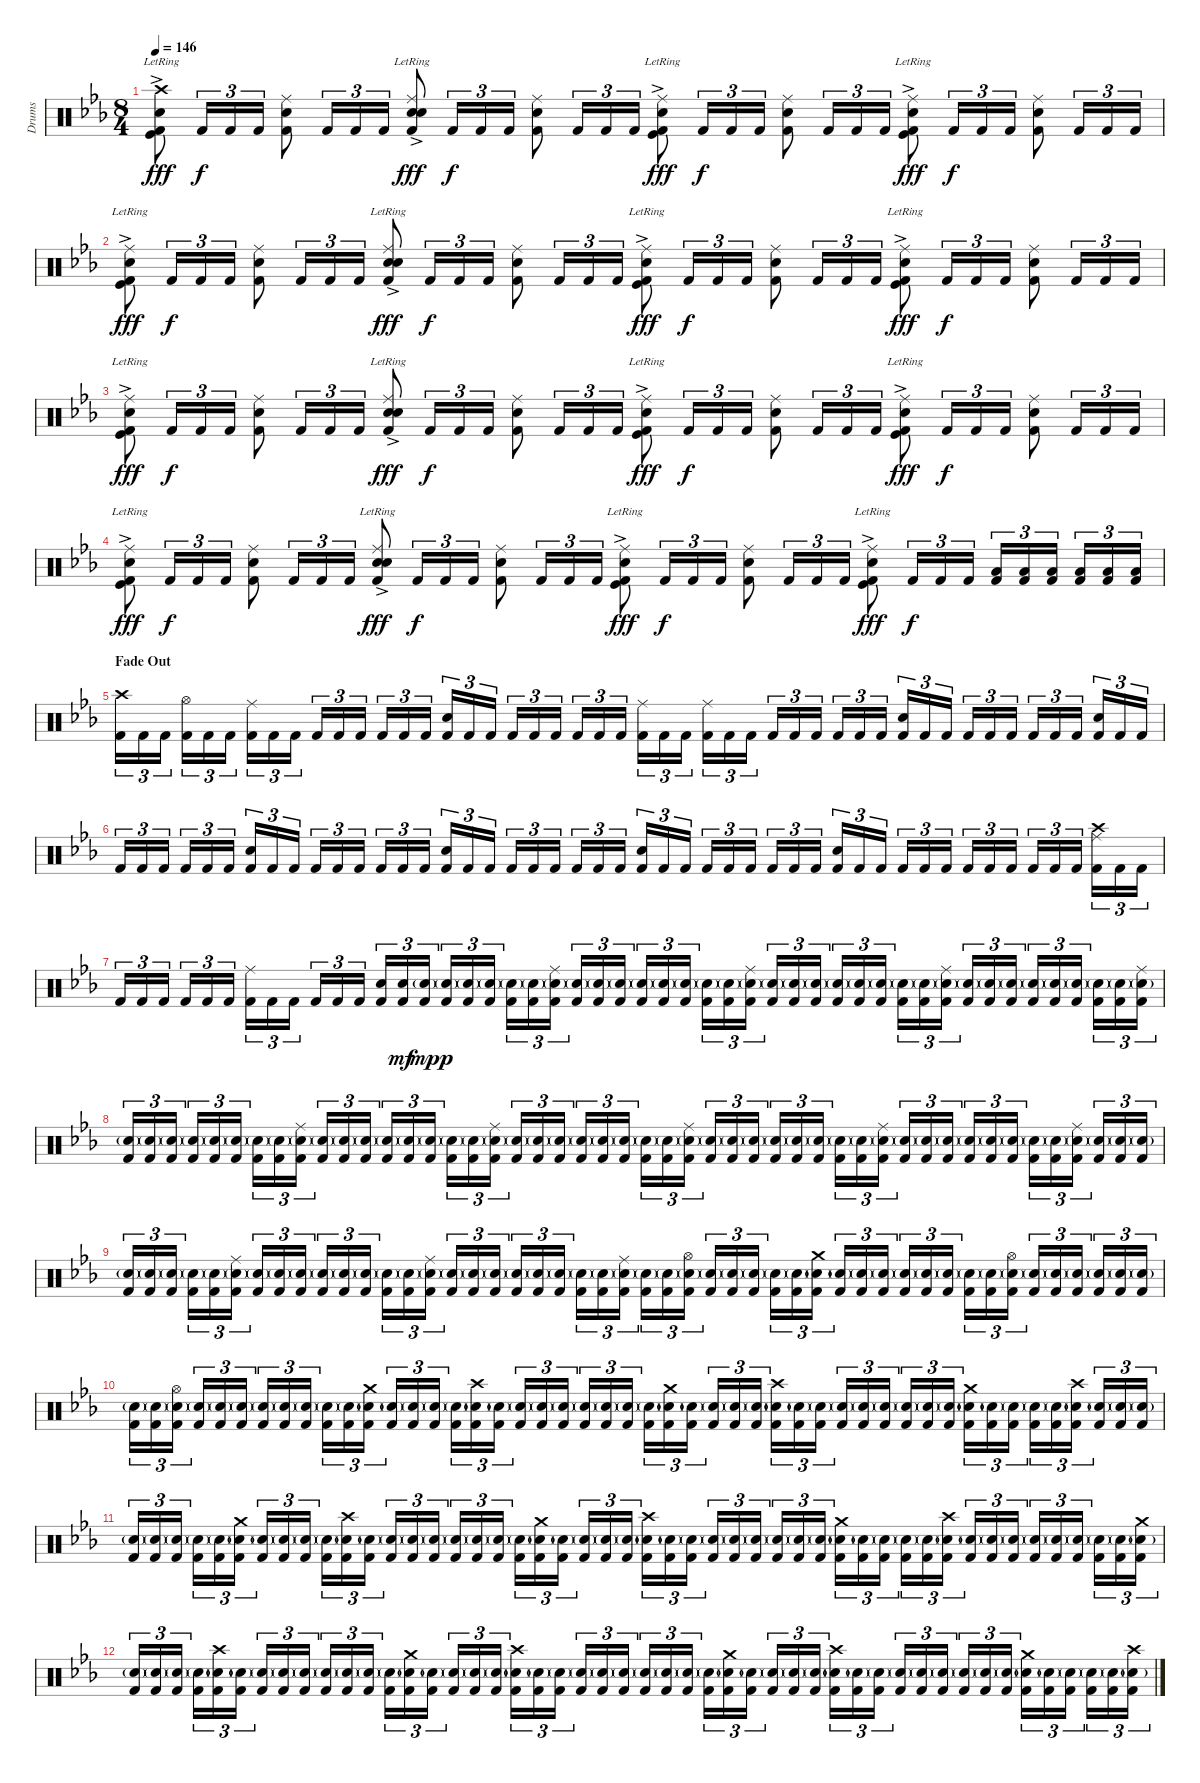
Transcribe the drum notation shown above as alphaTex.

\track ("Drums" "Drums") {instrument percussion}
\staff {score}
\articulation defaults
\ts (8 4)
\tempo 146
\clef neutral
\ks eb
("Crash high (hit)" "Kick (hit)"{ac lr} "Kick (hit) 2"{ac lr} "Electric Snare (hit)").8{dy fff} "Kick (hit) 2".16{tu (3 2) dy f} "Kick (hit) 2".16{tu (3 2)} "Kick (hit) 2".16{tu (3 2)} ("Ride (middle)" "Kick (hit) 2" "Electric Snare (hit)").8 "Kick (hit) 2".16{tu (3 2)} "Kick (hit) 2".16{tu (3 2)} "Kick (hit) 2".16{tu (3 2)} ("Ride (middle)" "Snare (hit) 2"{ac lr} "Kick (hit) 2" "Electric Snare (hit)"{ac lr}).8{dy fff} "Kick (hit) 2".16{tu (3 2) dy f} "Kick (hit) 2".16{tu (3 2)} "Kick (hit) 2".16{tu (3 2)} ("Ride (middle)" "Kick (hit) 2" "Electric Snare (hit)").8 "Kick (hit) 2".16{tu (3 2)} "Kick (hit) 2".16{tu (3 2)} "Kick (hit) 2".16{tu (3 2)} ("Ride (middle)" "Kick (hit)"{ac lr} "Kick (hit) 2"{ac lr} "Electric Snare (hit)").8{dy fff} "Kick (hit) 2".16{tu (3 2) dy f} "Kick (hit) 2".16{tu (3 2)} "Kick (hit) 2".16{tu (3 2)} ("Ride (middle)" "Kick (hit) 2" "Electric Snare (hit)").8 "Kick (hit) 2".16{tu (3 2)} "Kick (hit) 2".16{tu (3 2)} "Kick (hit) 2".16{tu (3 2)} ("Ride (middle)" "Kick (hit)"{ac lr} "Kick (hit) 2"{ac lr} "Electric Snare (hit)").8{dy fff} "Kick (hit) 2".16{tu (3 2) dy f} "Kick (hit) 2".16{tu (3 2)} "Kick (hit) 2".16{tu (3 2)} ("Ride (middle)" "Kick (hit) 2" "Electric Snare (hit)").8 "Kick (hit) 2".16{tu (3 2)} "Kick (hit) 2".16{tu (3 2)} "Kick (hit) 2".16{tu (3 2)} |
("Ride (middle)" "Kick (hit)"{ac lr} "Kick (hit) 2"{ac lr} "Electric Snare (hit)").8{dy fff} "Kick (hit) 2".16{tu (3 2) dy f} "Kick (hit) 2".16{tu (3 2)} "Kick (hit) 2".16{tu (3 2)} ("Ride (middle)" "Kick (hit) 2" "Electric Snare (hit)").8 "Kick (hit) 2".16{tu (3 2)} "Kick (hit) 2".16{tu (3 2)} "Kick (hit) 2".16{tu (3 2)} ("Ride (middle)" "Snare (hit) 2"{ac lr} "Kick (hit) 2" "Electric Snare (hit)"{ac lr}).8{dy fff} "Kick (hit) 2".16{tu (3 2) dy f} "Kick (hit) 2".16{tu (3 2)} "Kick (hit) 2".16{tu (3 2)} ("Ride (middle)" "Kick (hit) 2" "Electric Snare (hit)").8 "Kick (hit) 2".16{tu (3 2)} "Kick (hit) 2".16{tu (3 2)} "Kick (hit) 2".16{tu (3 2)} ("Ride (middle)" "Kick (hit)"{ac lr} "Kick (hit) 2"{ac lr} "Electric Snare (hit)").8{dy fff} "Kick (hit) 2".16{tu (3 2) dy f} "Kick (hit) 2".16{tu (3 2)} "Kick (hit) 2".16{tu (3 2)} ("Ride (middle)" "Kick (hit) 2" "Electric Snare (hit)").8 "Kick (hit) 2".16{tu (3 2)} "Kick (hit) 2".16{tu (3 2)} "Kick (hit) 2".16{tu (3 2)} ("Ride (middle)" "Kick (hit)"{ac lr} "Kick (hit) 2"{ac} "Electric Snare (hit)").8{dy fff} "Kick (hit) 2".16{tu (3 2) dy f} "Kick (hit) 2".16{tu (3 2)} "Kick (hit) 2".16{tu (3 2)} ("Ride (middle)" "Kick (hit) 2" "Electric Snare (hit)").8 "Kick (hit) 2".16{tu (3 2)} "Kick (hit) 2".16{tu (3 2)} "Kick (hit) 2".16{tu (3 2)} |
("Ride (middle)" "Kick (hit)"{ac lr} "Kick (hit) 2"{ac lr} "Electric Snare (hit)").8{dy fff} "Kick (hit) 2".16{tu (3 2) dy f} "Kick (hit) 2".16{tu (3 2)} "Kick (hit) 2".16{tu (3 2)} ("Ride (middle)" "Kick (hit) 2" "Electric Snare (hit)").8 "Kick (hit) 2".16{tu (3 2)} "Kick (hit) 2".16{tu (3 2)} "Kick (hit) 2".16{tu (3 2)} ("Ride (middle)" "Snare (hit) 2"{ac lr} "Kick (hit) 2" "Electric Snare (hit)"{ac lr}).8{dy fff} "Kick (hit) 2".16{tu (3 2) dy f} "Kick (hit) 2".16{tu (3 2)} "Kick (hit) 2".16{tu (3 2)} ("Ride (middle)" "Kick (hit) 2" "Electric Snare (hit)").8 "Kick (hit) 2".16{tu (3 2)} "Kick (hit) 2".16{tu (3 2)} "Kick (hit) 2".16{tu (3 2)} ("Ride (middle)" "Kick (hit)"{ac lr} "Kick (hit) 2"{ac lr} "Electric Snare (hit)").8{dy fff} "Kick (hit) 2".16{tu (3 2) dy f} "Kick (hit) 2".16{tu (3 2)} "Kick (hit) 2".16{tu (3 2)} ("Ride (middle)" "Kick (hit) 2" "Electric Snare (hit)").8 "Kick (hit) 2".16{tu (3 2)} "Kick (hit) 2".16{tu (3 2)} "Kick (hit) 2".16{tu (3 2)} ("Ride (middle)" "Kick (hit)"{ac lr} "Kick (hit) 2"{ac} "Electric Snare (hit)").8{dy fff} "Kick (hit) 2".16{tu (3 2) dy f} "Kick (hit) 2".16{tu (3 2)} "Kick (hit) 2".16{tu (3 2)} ("Ride (middle)" "Kick (hit) 2" "Electric Snare (hit)").8 "Kick (hit) 2".16{tu (3 2)} "Kick (hit) 2".16{tu (3 2)} "Kick (hit) 2".16{tu (3 2)} |
("Ride (middle)" "Kick (hit)"{ac lr} "Kick (hit) 2"{ac lr} "Electric Snare (hit)").8{dy fff} "Kick (hit) 2".16{tu (3 2) dy f} "Kick (hit) 2".16{tu (3 2)} "Kick (hit) 2".16{tu (3 2)} ("Ride (middle)" "Kick (hit) 2" "Electric Snare (hit)").8 "Kick (hit) 2".16{tu (3 2)} "Kick (hit) 2".16{tu (3 2)} "Kick (hit) 2".16{tu (3 2)} ("Ride (middle)" "Snare (hit) 2"{ac lr} "Kick (hit) 2" "Electric Snare (hit)"{ac lr}).8{dy fff} "Kick (hit) 2".16{tu (3 2) dy f} "Kick (hit) 2".16{tu (3 2)} "Kick (hit) 2".16{tu (3 2)} ("Ride (middle)" "Kick (hit) 2" "Electric Snare (hit)").8 "Kick (hit) 2".16{tu (3 2)} "Kick (hit) 2".16{tu (3 2)} "Kick (hit) 2".16{tu (3 2)} ("Ride (middle)" "Kick (hit)"{ac lr} "Kick (hit) 2"{ac lr} "Electric Snare (hit)").8{dy fff} "Kick (hit) 2".16{tu (3 2) dy f} "Kick (hit) 2".16{tu (3 2)} "Kick (hit) 2".16{tu (3 2)} ("Ride (middle)" "Kick (hit) 2" "Electric Snare (hit)").8 "Kick (hit) 2".16{tu (3 2)} "Kick (hit) 2".16{tu (3 2)} "Kick (hit) 2".16{tu (3 2)} ("Ride (middle)" "Kick (hit)"{ac lr} "Kick (hit) 2"{ac lr} "Electric Snare (hit)").8{dy fff} "Kick (hit) 2".16{tu (3 2) dy f} "Kick (hit) 2".16{tu (3 2)} "Kick (hit) 2".16{tu (3 2)} ("Low Tom (hit)" "Kick (hit) 2").16{tu (3 2)} ("Low Tom (hit)" "Kick (hit) 2").16{tu (3 2)} ("Low Tom (hit)" "Kick (hit) 2").16{tu (3 2)} ("Low Tom (hit)" "Kick (hit) 2").16{tu (3 2)} ("Low Tom (hit)" "Kick (hit) 2").16{tu (3 2)} ("Low Tom (hit)" "Kick (hit) 2").16{tu (3 2)} |
\section ("" "Fade Out")
("Crash high (hit)" "Kick (hit) 2").16{tu (3 2)} "Kick (hit) 2".16{tu (3 2)} "Kick (hit) 2".16{tu (3 2)} ("Hi-Hat (open)" "Kick (hit) 2").16{tu (3 2)} "Kick (hit) 2".16{tu (3 2)} "Kick (hit) 2".16{tu (3 2)} ("Ride (middle)" "Kick (hit) 2").16{tu (3 2)} "Kick (hit) 2".16{tu (3 2)} "Kick (hit) 2".16{tu (3 2)} "Kick (hit) 2".16{tu (3 2)} "Kick (hit) 2".16{tu (3 2)} "Kick (hit) 2".16{tu (3 2)} "Kick (hit) 2".16{tu (3 2)} "Kick (hit) 2".16{tu (3 2)} "Kick (hit) 2".16{tu (3 2)} ("Electric Snare (hit)" "Kick (hit) 2").16{tu (3 2)} "Kick (hit) 2".16{tu (3 2)} "Kick (hit) 2".16{tu (3 2)} "Kick (hit) 2".16{tu (3 2)} "Kick (hit) 2".16{tu (3 2)} "Kick (hit) 2".16{tu (3 2)} "Kick (hit) 2".16{tu (3 2)} "Kick (hit) 2".16{tu (3 2)} "Kick (hit) 2".16{tu (3 2)} ("Ride (middle)" "Kick (hit) 2").16{tu (3 2)} "Kick (hit) 2".16{tu (3 2)} "Kick (hit) 2".16{tu (3 2)} ("Ride (middle)" "Kick (hit) 2").16{tu (3 2)} "Kick (hit) 2".16{tu (3 2)} "Kick (hit) 2".16{tu (3 2)} "Kick (hit) 2".16{tu (3 2)} "Kick (hit) 2".16{tu (3 2)} "Kick (hit) 2".16{tu (3 2)} "Kick (hit) 2".16{tu (3 2)} "Kick (hit) 2".16{tu (3 2)} "Kick (hit) 2".16{tu (3 2)} ("Electric Snare (hit)" "Kick (hit) 2").16{tu (3 2)} "Kick (hit) 2".16{tu (3 2)} "Kick (hit) 2".16{tu (3 2)} "Kick (hit) 2".16{tu (3 2)} "Kick (hit) 2".16{tu (3 2)} "Kick (hit) 2".16{tu (3 2)} "Kick (hit) 2".16{tu (3 2)} "Kick (hit) 2".16{tu (3 2)} "Kick (hit) 2".16{tu (3 2)} ("Electric Snare (hit)" "Kick (hit) 2").16{tu (3 2)} "Kick (hit) 2".16{tu (3 2)} "Kick (hit) 2".16{tu (3 2)} |
"Kick (hit) 2".16{tu (3 2)} "Kick (hit) 2".16{tu (3 2)} "Kick (hit) 2".16{tu (3 2)} "Kick (hit) 2".16{tu (3 2)} "Kick (hit) 2".16{tu (3 2)} "Kick (hit) 2".16{tu (3 2)} ("Electric Snare (hit)" "Kick (hit) 2").16{tu (3 2)} "Kick (hit) 2".16{tu (3 2)} "Kick (hit) 2".16{tu (3 2)} "Kick (hit) 2".16{tu (3 2)} "Kick (hit) 2".16{tu (3 2)} "Kick (hit) 2".16{tu (3 2)} "Kick (hit) 2".16{tu (3 2)} "Kick (hit) 2".16{tu (3 2)} "Kick (hit) 2".16{tu (3 2)} ("Electric Snare (hit)" "Kick (hit) 2").16{tu (3 2)} "Kick (hit) 2".16{tu (3 2)} "Kick (hit) 2".16{tu (3 2)} "Kick (hit) 2".16{tu (3 2)} "Kick (hit) 2".16{tu (3 2)} "Kick (hit) 2".16{tu (3 2)} "Kick (hit) 2".16{tu (3 2)} "Kick (hit) 2".16{tu (3 2)} "Kick (hit) 2".16{tu (3 2)} ("Electric Snare (hit)" "Kick (hit) 2").16{tu (3 2)} "Kick (hit) 2".16{tu (3 2)} "Kick (hit) 2".16{tu (3 2)} "Kick (hit) 2".16{tu (3 2)} "Kick (hit) 2".16{tu (3 2)} "Kick (hit) 2".16{tu (3 2)} "Kick (hit) 2".16{tu (3 2)} "Kick (hit) 2".16{tu (3 2)} "Kick (hit) 2".16{tu (3 2)} ("Electric Snare (hit)" "Kick (hit) 2").16{tu (3 2)} "Kick (hit) 2".16{tu (3 2)} "Kick (hit) 2".16{tu (3 2)} "Kick (hit) 2".16{tu (3 2)} "Kick (hit) 2".16{tu (3 2)} "Kick (hit) 2".16{tu (3 2)} "Kick (hit) 2".16{tu (3 2)} "Kick (hit) 2".16{tu (3 2)} "Kick (hit) 2".16{tu (3 2)} "Kick (hit) 2".16{tu (3 2)} "Kick (hit) 2".16{tu (3 2)} "Kick (hit) 2".16{tu (3 2)} ("Crash high (hit)" "Ride (middle)" "Kick (hit) 2").16{tu (3 2)} "Kick (hit) 2".16{tu (3 2)} "Kick (hit) 2".16{tu (3 2)} |
"Kick (hit) 2".16{tu (3 2)} "Kick (hit) 2".16{tu (3 2)} "Kick (hit) 2".16{tu (3 2)} "Kick (hit) 2".16{tu (3 2)} "Kick (hit) 2".16{tu (3 2)} "Kick (hit) 2".16{tu (3 2)} ("Ride (middle)" "Kick (hit) 2").16{tu (3 2)} "Kick (hit) 2".16{tu (3 2)} "Kick (hit) 2".16{tu (3 2)} "Kick (hit) 2".16{tu (3 2)} "Kick (hit) 2".16{tu (3 2)} "Kick (hit) 2".16{tu (3 2)} ("Electric Snare (hit)" "Kick (hit) 2").16{tu (3 2)} ("Electric Snare (hit)" "Kick (hit) 2").16{tu (3 2) dy mf} ("Electric Snare (hit)"{g} "Kick (hit) 2").16{tu (3 2) dy mp} ("Electric Snare (hit)"{g} "Kick (hit) 2").16{tu (3 2) dy p} ("Electric Snare (hit)"{g} "Kick (hit) 2").16{tu (3 2)} ("Electric Snare (hit)"{g} "Kick (hit) 2").16{tu (3 2)} ("Electric Snare (hit)"{g} "Kick (hit) 2").16{tu (3 2)} ("Electric Snare (hit)"{g} "Kick (hit) 2").16{tu (3 2)} ("Ride (middle)" "Electric Snare (hit)"{g} "Kick (hit) 2").16{tu (3 2)} ("Electric Snare (hit)"{g} "Kick (hit) 2").16{tu (3 2)} ("Electric Snare (hit)"{g} "Kick (hit) 2").16{tu (3 2)} ("Electric Snare (hit)"{g} "Kick (hit) 2").16{tu (3 2)} ("Electric Snare (hit)"{g} "Kick (hit) 2").16{tu (3 2)} ("Electric Snare (hit)"{g} "Kick (hit) 2").16{tu (3 2)} ("Electric Snare (hit)"{g} "Kick (hit) 2").16{tu (3 2)} ("Electric Snare (hit)"{g} "Kick (hit) 2").16{tu (3 2)} ("Electric Snare (hit)"{g} "Kick (hit) 2").16{tu (3 2)} ("Ride (middle)" "Electric Snare (hit)"{g} "Kick (hit) 2").16{tu (3 2)} ("Electric Snare (hit)"{g} "Kick (hit) 2").16{tu (3 2)} ("Electric Snare (hit)"{g} "Kick (hit) 2").16{tu (3 2)} ("Electric Snare (hit)"{g} "Kick (hit) 2").16{tu (3 2)} ("Electric Snare (hit)"{g} "Kick (hit) 2").16{tu (3 2)} ("Electric Snare (hit)"{g} "Kick (hit) 2").16{tu (3 2)} ("Electric Snare (hit)"{g} "Kick (hit) 2").16{tu (3 2)} ("Electric Snare (hit)"{g} "Kick (hit) 2").16{tu (3 2)} ("Electric Snare (hit)"{g} "Kick (hit) 2").16{tu (3 2)} ("Ride (middle)" "Electric Snare (hit)"{g} "Kick (hit) 2").16{tu (3 2)} ("Electric Snare (hit)"{g} "Kick (hit) 2").16{tu (3 2)} ("Electric Snare (hit)"{g} "Kick (hit) 2").16{tu (3 2)} ("Electric Snare (hit)"{g} "Kick (hit) 2").16{tu (3 2)} ("Electric Snare (hit)"{g} "Kick (hit) 2").16{tu (3 2)} ("Electric Snare (hit)"{g} "Kick (hit) 2").16{tu (3 2)} ("Electric Snare (hit)"{g} "Kick (hit) 2").16{tu (3 2)} ("Electric Snare (hit)"{g} "Kick (hit) 2").16{tu (3 2)} ("Electric Snare (hit)"{g} "Kick (hit) 2").16{tu (3 2)} ("Ride (middle)" "Electric Snare (hit)"{g} "Kick (hit) 2").16{tu (3 2)} |
("Electric Snare (hit)"{g} "Kick (hit) 2").16{tu (3 2)} ("Electric Snare (hit)"{g} "Kick (hit) 2").16{tu (3 2)} ("Electric Snare (hit)"{g} "Kick (hit) 2").16{tu (3 2)} ("Electric Snare (hit)"{g} "Kick (hit) 2").16{tu (3 2)} ("Electric Snare (hit)"{g} "Kick (hit) 2").16{tu (3 2)} ("Electric Snare (hit)"{g} "Kick (hit) 2").16{tu (3 2)} ("Electric Snare (hit)"{g} "Kick (hit) 2").16{tu (3 2)} ("Electric Snare (hit)"{g} "Kick (hit) 2").16{tu (3 2)} ("Ride (middle)" "Electric Snare (hit)"{g} "Kick (hit) 2").16{tu (3 2)} ("Electric Snare (hit)"{g} "Kick (hit) 2").16{tu (3 2)} ("Electric Snare (hit)"{g} "Kick (hit) 2").16{tu (3 2)} ("Electric Snare (hit)"{g} "Kick (hit) 2").16{tu (3 2)} ("Electric Snare (hit)"{g} "Kick (hit) 2").16{tu (3 2)} ("Electric Snare (hit)"{g} "Kick (hit) 2").16{tu (3 2)} ("Electric Snare (hit)"{g} "Kick (hit) 2").16{tu (3 2)} ("Electric Snare (hit)"{g} "Kick (hit) 2").16{tu (3 2)} ("Electric Snare (hit)"{g} "Kick (hit) 2").16{tu (3 2)} ("Ride (middle)" "Electric Snare (hit)"{g} "Kick (hit) 2").16{tu (3 2)} ("Electric Snare (hit)"{g} "Kick (hit) 2").16{tu (3 2)} ("Electric Snare (hit)"{g} "Kick (hit) 2").16{tu (3 2)} ("Electric Snare (hit)"{g} "Kick (hit) 2").16{tu (3 2)} ("Electric Snare (hit)"{g} "Kick (hit) 2").16{tu (3 2)} ("Electric Snare (hit)"{g} "Kick (hit) 2").16{tu (3 2)} ("Electric Snare (hit)"{g} "Kick (hit) 2").16{tu (3 2)} ("Electric Snare (hit)"{g} "Kick (hit) 2").16{tu (3 2)} ("Electric Snare (hit)"{g} "Kick (hit) 2").16{tu (3 2)} ("Ride (middle)" "Electric Snare (hit)"{g} "Kick (hit) 2").16{tu (3 2)} ("Electric Snare (hit)"{g} "Kick (hit) 2").16{tu (3 2)} ("Electric Snare (hit)"{g} "Kick (hit) 2").16{tu (3 2)} ("Electric Snare (hit)"{g} "Kick (hit) 2").16{tu (3 2)} ("Electric Snare (hit)"{g} "Kick (hit) 2").16{tu (3 2)} ("Electric Snare (hit)"{g} "Kick (hit) 2").16{tu (3 2)} ("Electric Snare (hit)"{g} "Kick (hit) 2").16{tu (3 2)} ("Electric Snare (hit)"{g} "Kick (hit) 2").16{tu (3 2)} ("Electric Snare (hit)"{g} "Kick (hit) 2").16{tu (3 2)} ("Ride (middle)" "Electric Snare (hit)"{g} "Kick (hit) 2").16{tu (3 2)} ("Electric Snare (hit)"{g} "Kick (hit) 2").16{tu (3 2)} ("Electric Snare (hit)"{g} "Kick (hit) 2").16{tu (3 2)} ("Electric Snare (hit)"{g} "Kick (hit) 2").16{tu (3 2)} ("Electric Snare (hit)"{g} "Kick (hit) 2").16{tu (3 2)} ("Electric Snare (hit)"{g} "Kick (hit) 2").16{tu (3 2)} ("Electric Snare (hit)"{g} "Kick (hit) 2").16{tu (3 2)} ("Electric Snare (hit)"{g} "Kick (hit) 2").16{tu (3 2)} ("Electric Snare (hit)"{g} "Kick (hit) 2").16{tu (3 2)} ("Ride (middle)" "Electric Snare (hit)"{g} "Kick (hit) 2").16{tu (3 2)} ("Electric Snare (hit)"{g} "Kick (hit) 2").16{tu (3 2)} ("Electric Snare (hit)"{g} "Kick (hit) 2").16{tu (3 2)} ("Electric Snare (hit)"{g} "Kick (hit) 2").16{tu (3 2)} |
("Electric Snare (hit)"{g} "Kick (hit) 2").16{tu (3 2)} ("Electric Snare (hit)"{g} "Kick (hit) 2").16{tu (3 2)} ("Electric Snare (hit)"{g} "Kick (hit) 2").16{tu (3 2)} ("Electric Snare (hit)"{g} "Kick (hit) 2").16{tu (3 2)} ("Electric Snare (hit)"{g} "Kick (hit) 2").16{tu (3 2)} ("Ride (middle)" "Electric Snare (hit)"{g} "Kick (hit) 2").16{tu (3 2)} ("Electric Snare (hit)"{g} "Kick (hit) 2").16{tu (3 2)} ("Electric Snare (hit)"{g} "Kick (hit) 2").16{tu (3 2)} ("Electric Snare (hit)"{g} "Kick (hit) 2").16{tu (3 2)} ("Electric Snare (hit)"{g} "Kick (hit) 2").16{tu (3 2)} ("Electric Snare (hit)"{g} "Kick (hit) 2").16{tu (3 2)} ("Electric Snare (hit)"{g} "Kick (hit) 2").16{tu (3 2)} ("Electric Snare (hit)"{g} "Kick (hit) 2").16{tu (3 2)} ("Electric Snare (hit)"{g} "Kick (hit) 2").16{tu (3 2)} ("Ride (middle)" "Electric Snare (hit)"{g} "Kick (hit) 2").16{tu (3 2)} ("Electric Snare (hit)"{g} "Kick (hit) 2").16{tu (3 2)} ("Electric Snare (hit)"{g} "Kick (hit) 2").16{tu (3 2)} ("Electric Snare (hit)"{g} "Kick (hit) 2").16{tu (3 2)} ("Electric Snare (hit)"{g} "Kick (hit) 2").16{tu (3 2)} ("Electric Snare (hit)"{g} "Kick (hit) 2").16{tu (3 2)} ("Electric Snare (hit)"{g} "Kick (hit) 2").16{tu (3 2)} ("Electric Snare (hit)"{g} "Kick (hit) 2").16{tu (3 2)} ("Electric Snare (hit)"{g} "Kick (hit) 2").16{tu (3 2)} ("Ride (middle)" "Electric Snare (hit)"{g} "Kick (hit) 2").16{tu (3 2)} ("Electric Snare (hit)"{g} "Kick (hit) 2").16{tu (3 2)} ("Electric Snare (hit)"{g} "Kick (hit) 2").16{tu (3 2)} ("Hi-Hat (open)" "Electric Snare (hit)"{g} "Kick (hit) 2").16{tu (3 2)} ("Electric Snare (hit)"{g} "Kick (hit) 2").16{tu (3 2)} ("Electric Snare (hit)"{g} "Kick (hit) 2").16{tu (3 2)} ("Electric Snare (hit)"{g} "Kick (hit) 2").16{tu (3 2)} ("Electric Snare (hit)"{g} "Kick (hit) 2").16{tu (3 2)} ("Electric Snare (hit)"{g} "Kick (hit) 2").16{tu (3 2)} ("Crash medium (hit)" "Electric Snare (hit)"{g} "Kick (hit) 2").16{tu (3 2)} ("Electric Snare (hit)"{g} "Kick (hit) 2").16{tu (3 2)} ("Electric Snare (hit)"{g} "Kick (hit) 2").16{tu (3 2)} ("Electric Snare (hit)"{g} "Kick (hit) 2").16{tu (3 2)} ("Electric Snare (hit)"{g} "Kick (hit) 2").16{tu (3 2)} ("Electric Snare (hit)"{g} "Kick (hit) 2").16{tu (3 2)} ("Electric Snare (hit)"{g} "Kick (hit) 2").16{tu (3 2)} ("Electric Snare (hit)"{g} "Kick (hit) 2").16{tu (3 2)} ("Electric Snare (hit)"{g} "Kick (hit) 2").16{tu (3 2)} ("Hi-Hat (open)" "Electric Snare (hit)"{g} "Kick (hit) 2").16{tu (3 2)} ("Electric Snare (hit)"{g} "Kick (hit) 2").16{tu (3 2)} ("Electric Snare (hit)"{g} "Kick (hit) 2").16{tu (3 2)} ("Electric Snare (hit)"{g} "Kick (hit) 2").16{tu (3 2)} ("Electric Snare (hit)"{g} "Kick (hit) 2").16{tu (3 2)} ("Electric Snare (hit)"{g} "Kick (hit) 2").16{tu (3 2)} ("Electric Snare (hit)"{g} "Kick (hit) 2").16{tu (3 2)} |
("Electric Snare (hit)"{g} "Kick (hit) 2").16{tu (3 2)} ("Electric Snare (hit)"{g} "Kick (hit) 2").16{tu (3 2)} ("Hi-Hat (open)" "Electric Snare (hit)"{g} "Kick (hit) 2").16{tu (3 2)} ("Electric Snare (hit)"{g} "Kick (hit) 2").16{tu (3 2)} ("Electric Snare (hit)"{g} "Kick (hit) 2").16{tu (3 2)} ("Electric Snare (hit)"{g} "Kick (hit) 2").16{tu (3 2)} ("Electric Snare (hit)"{g} "Kick (hit) 2").16{tu (3 2)} ("Electric Snare (hit)"{g} "Kick (hit) 2").16{tu (3 2)} ("Electric Snare (hit)"{g} "Kick (hit) 2").16{tu (3 2)} ("Electric Snare (hit)"{g} "Kick (hit) 2").16{tu (3 2)} ("Electric Snare (hit)"{g} "Kick (hit) 2").16{tu (3 2)} ("Crash medium (hit)" "Electric Snare (hit)"{g} "Kick (hit) 2").16{tu (3 2)} ("Electric Snare (hit)"{g} "Kick (hit) 2").16{tu (3 2)} ("Electric Snare (hit)"{g} "Kick (hit) 2").16{tu (3 2)} ("Electric Snare (hit)"{g} "Kick (hit) 2").16{tu (3 2)} ("Electric Snare (hit)"{g} "Kick (hit) 2").16{tu (3 2)} ("Crash high (hit)" "Electric Snare (hit)"{g} "Kick (hit) 2").16{tu (3 2)} ("Electric Snare (hit)"{g} "Kick (hit) 2").16{tu (3 2)} ("Electric Snare (hit)"{g} "Kick (hit) 2").16{tu (3 2)} ("Electric Snare (hit)"{g} "Kick (hit) 2").16{tu (3 2)} ("Electric Snare (hit)"{g} "Kick (hit) 2").16{tu (3 2)} ("Electric Snare (hit)"{g} "Kick (hit) 2").16{tu (3 2)} ("Electric Snare (hit)"{g} "Kick (hit) 2").16{tu (3 2)} ("Electric Snare (hit)"{g} "Kick (hit) 2").16{tu (3 2)} ("Electric Snare (hit)"{g} "Kick (hit) 2").16{tu (3 2)} ("Crash medium (hit)" "Electric Snare (hit)"{g} "Kick (hit) 2").16{tu (3 2)} ("Electric Snare (hit)"{g} "Kick (hit) 2").16{tu (3 2)} ("Electric Snare (hit)"{g} "Kick (hit) 2").16{tu (3 2)} ("Electric Snare (hit)"{g} "Kick (hit) 2").16{tu (3 2)} ("Electric Snare (hit)"{g} "Kick (hit) 2").16{tu (3 2)} ("Crash high (hit)" "Electric Snare (hit)"{g} "Kick (hit) 2").16{tu (3 2)} ("Electric Snare (hit)"{g} "Kick (hit) 2").16{tu (3 2)} ("Electric Snare (hit)"{g} "Kick (hit) 2").16{tu (3 2)} ("Electric Snare (hit)"{g} "Kick (hit) 2").16{tu (3 2)} ("Electric Snare (hit)"{g} "Kick (hit) 2").16{tu (3 2)} ("Electric Snare (hit)"{g} "Kick (hit) 2").16{tu (3 2)} ("Electric Snare (hit)"{g} "Kick (hit) 2").16{tu (3 2)} ("Electric Snare (hit)"{g} "Kick (hit) 2").16{tu (3 2)} ("Electric Snare (hit)"{g} "Kick (hit) 2").16{tu (3 2)} ("Crash medium (hit)" "Electric Snare (hit)"{g} "Kick (hit) 2").16{tu (3 2)} ("Electric Snare (hit)"{g} "Kick (hit) 2").16{tu (3 2)} ("Electric Snare (hit)"{g} "Kick (hit) 2").16{tu (3 2)} ("Electric Snare (hit)"{g} "Kick (hit) 2").16{tu (3 2)} ("Electric Snare (hit)"{g} "Kick (hit) 2").16{tu (3 2)} ("Crash high (hit)" "Electric Snare (hit)"{g} "Kick (hit) 2").16{tu (3 2)} ("Electric Snare (hit)"{g} "Kick (hit) 2").16{tu (3 2)} ("Electric Snare (hit)"{g} "Kick (hit) 2").16{tu (3 2)} ("Electric Snare (hit)"{g} "Kick (hit) 2").16{tu (3 2)} |
("Electric Snare (hit)"{g} "Kick (hit) 2").16{tu (3 2)} ("Electric Snare (hit)"{g} "Kick (hit) 2").16{tu (3 2)} ("Electric Snare (hit)"{g} "Kick (hit) 2").16{tu (3 2)} ("Electric Snare (hit)"{g} "Kick (hit) 2").16{tu (3 2)} ("Electric Snare (hit)"{g} "Kick (hit) 2").16{tu (3 2)} ("Crash medium (hit)" "Electric Snare (hit)"{g} "Kick (hit) 2").16{tu (3 2)} ("Electric Snare (hit)"{g} "Kick (hit) 2").16{tu (3 2)} ("Electric Snare (hit)"{g} "Kick (hit) 2").16{tu (3 2)} ("Electric Snare (hit)"{g} "Kick (hit) 2").16{tu (3 2)} ("Electric Snare (hit)"{g} "Kick (hit) 2").16{tu (3 2)} ("Crash high (hit)" "Electric Snare (hit)"{g} "Kick (hit) 2").16{tu (3 2)} ("Electric Snare (hit)"{g} "Kick (hit) 2").16{tu (3 2)} ("Electric Snare (hit)"{g} "Kick (hit) 2").16{tu (3 2)} ("Electric Snare (hit)"{g} "Kick (hit) 2").16{tu (3 2)} ("Electric Snare (hit)"{g} "Kick (hit) 2").16{tu (3 2)} ("Electric Snare (hit)"{g} "Kick (hit) 2").16{tu (3 2)} ("Electric Snare (hit)"{g} "Kick (hit) 2").16{tu (3 2)} ("Electric Snare (hit)"{g} "Kick (hit) 2").16{tu (3 2)} ("Electric Snare (hit)"{g} "Kick (hit) 2").16{tu (3 2)} ("Crash medium (hit)" "Electric Snare (hit)"{g} "Kick (hit) 2").16{tu (3 2)} ("Electric Snare (hit)"{g} "Kick (hit) 2").16{tu (3 2)} ("Electric Snare (hit)"{g} "Kick (hit) 2").16{tu (3 2)} ("Electric Snare (hit)"{g} "Kick (hit) 2").16{tu (3 2)} ("Electric Snare (hit)"{g} "Kick (hit) 2").16{tu (3 2)} ("Crash high (hit)" "Electric Snare (hit)"{g} "Kick (hit) 2").16{tu (3 2)} ("Electric Snare (hit)"{g} "Kick (hit) 2").16{tu (3 2)} ("Electric Snare (hit)"{g} "Kick (hit) 2").16{tu (3 2)} ("Electric Snare (hit)"{g} "Kick (hit) 2").16{tu (3 2)} ("Electric Snare (hit)"{g} "Kick (hit) 2").16{tu (3 2)} ("Electric Snare (hit)"{g} "Kick (hit) 2").16{tu (3 2)} ("Electric Snare (hit)"{g} "Kick (hit) 2").16{tu (3 2)} ("Electric Snare (hit)"{g} "Kick (hit) 2").16{tu (3 2)} ("Electric Snare (hit)"{g} "Kick (hit) 2").16{tu (3 2)} ("Crash medium (hit)" "Electric Snare (hit)"{g} "Kick (hit) 2").16{tu (3 2)} ("Electric Snare (hit)"{g} "Kick (hit) 2").16{tu (3 2)} ("Electric Snare (hit)"{g} "Kick (hit) 2").16{tu (3 2)} ("Electric Snare (hit)"{g} "Kick (hit) 2").16{tu (3 2)} ("Electric Snare (hit)"{g} "Kick (hit) 2").16{tu (3 2)} ("Crash high (hit)" "Electric Snare (hit)"{g} "Kick (hit) 2").16{tu (3 2)} ("Electric Snare (hit)"{g} "Kick (hit) 2").16{tu (3 2)} ("Electric Snare (hit)"{g} "Kick (hit) 2").16{tu (3 2)} ("Electric Snare (hit)"{g} "Kick (hit) 2").16{tu (3 2)} ("Electric Snare (hit)"{g} "Kick (hit) 2").16{tu (3 2)} ("Electric Snare (hit)"{g} "Kick (hit) 2").16{tu (3 2)} ("Electric Snare (hit)"{g} "Kick (hit) 2").16{tu (3 2)} ("Electric Snare (hit)"{g} "Kick (hit) 2").16{tu (3 2)} ("Electric Snare (hit)"{g} "Kick (hit) 2").16{tu (3 2)} ("Crash medium (hit)" "Electric Snare (hit)"{g} "Kick (hit) 2").16{tu (3 2)} |
("Electric Snare (hit)"{g} "Kick (hit) 2").16{tu (3 2)} ("Electric Snare (hit)"{g} "Kick (hit) 2").16{tu (3 2)} ("Electric Snare (hit)"{g} "Kick (hit) 2").16{tu (3 2)} ("Electric Snare (hit)"{g} "Kick (hit) 2").16{tu (3 2)} ("Crash high (hit)" "Electric Snare (hit)"{g} "Kick (hit) 2").16{tu (3 2)} ("Electric Snare (hit)"{g} "Kick (hit) 2").16{tu (3 2)} ("Electric Snare (hit)"{g} "Kick (hit) 2").16{tu (3 2)} ("Electric Snare (hit)"{g} "Kick (hit) 2").16{tu (3 2)} ("Electric Snare (hit)"{g} "Kick (hit) 2").16{tu (3 2)} ("Electric Snare (hit)"{g} "Kick (hit) 2").16{tu (3 2)} ("Electric Snare (hit)"{g} "Kick (hit) 2").16{tu (3 2)} ("Electric Snare (hit)"{g} "Kick (hit) 2").16{tu (3 2)} ("Electric Snare (hit)"{g} "Kick (hit) 2").16{tu (3 2)} ("Crash medium (hit)" "Electric Snare (hit)"{g} "Kick (hit) 2").16{tu (3 2)} ("Electric Snare (hit)"{g} "Kick (hit) 2").16{tu (3 2)} ("Electric Snare (hit)"{g} "Kick (hit) 2").16{tu (3 2)} ("Electric Snare (hit)"{g} "Kick (hit) 2").16{tu (3 2)} ("Electric Snare (hit)"{g} "Kick (hit) 2").16{tu (3 2)} ("Crash high (hit)" "Electric Snare (hit)"{g} "Kick (hit) 2").16{tu (3 2)} ("Electric Snare (hit)"{g} "Kick (hit) 2").16{tu (3 2)} ("Electric Snare (hit)"{g} "Kick (hit) 2").16{tu (3 2)} ("Electric Snare (hit)"{g} "Kick (hit) 2").16{tu (3 2)} ("Electric Snare (hit)"{g} "Kick (hit) 2").16{tu (3 2)} ("Electric Snare (hit)"{g} "Kick (hit) 2").16{tu (3 2)} ("Electric Snare (hit)"{g} "Kick (hit) 2").16{tu (3 2)} ("Electric Snare (hit)"{g} "Kick (hit) 2").16{tu (3 2)} ("Electric Snare (hit)"{g} "Kick (hit) 2").16{tu (3 2)} ("Electric Snare (hit)"{g} "Kick (hit) 2").16{tu (3 2)} ("Crash medium (hit)" "Electric Snare (hit)"{g} "Kick (hit) 2").16{tu (3 2)} ("Electric Snare (hit)"{g} "Kick (hit) 2").16{tu (3 2)} ("Electric Snare (hit)"{g} "Kick (hit) 2").16{tu (3 2)} ("Electric Snare (hit)"{g} "Kick (hit) 2").16{tu (3 2)} ("Electric Snare (hit)"{g} "Kick (hit) 2").16{tu (3 2)} ("Crash high (hit)" "Electric Snare (hit)"{g} "Kick (hit) 2").16{tu (3 2)} ("Electric Snare (hit)"{g} "Kick (hit) 2").16{tu (3 2)} ("Electric Snare (hit)"{g} "Kick (hit) 2").16{tu (3 2)} ("Electric Snare (hit)"{g} "Kick (hit) 2").16{tu (3 2)} ("Electric Snare (hit)"{g} "Kick (hit) 2").16{tu (3 2)} ("Electric Snare (hit)"{g} "Kick (hit) 2").16{tu (3 2)} ("Electric Snare (hit)"{g} "Kick (hit) 2").16{tu (3 2)} ("Electric Snare (hit)"{g} "Kick (hit) 2").16{tu (3 2)} ("Electric Snare (hit)"{g} "Kick (hit) 2").16{tu (3 2)} ("Crash medium (hit)" "Electric Snare (hit)"{g} "Kick (hit) 2").16{tu (3 2)} ("Electric Snare (hit)"{g} "Kick (hit) 2").16{tu (3 2)} ("Electric Snare (hit)"{g} "Kick (hit) 2").16{tu (3 2)} ("Electric Snare (hit)"{g} "Kick (hit) 2").16{tu (3 2)} ("Electric Snare (hit)"{g} "Kick (hit) 2").16{tu (3 2)} ("Crash high (hit)" "Electric Snare (hit)"{g} "Kick (hit) 2").16{tu (3 2)}
